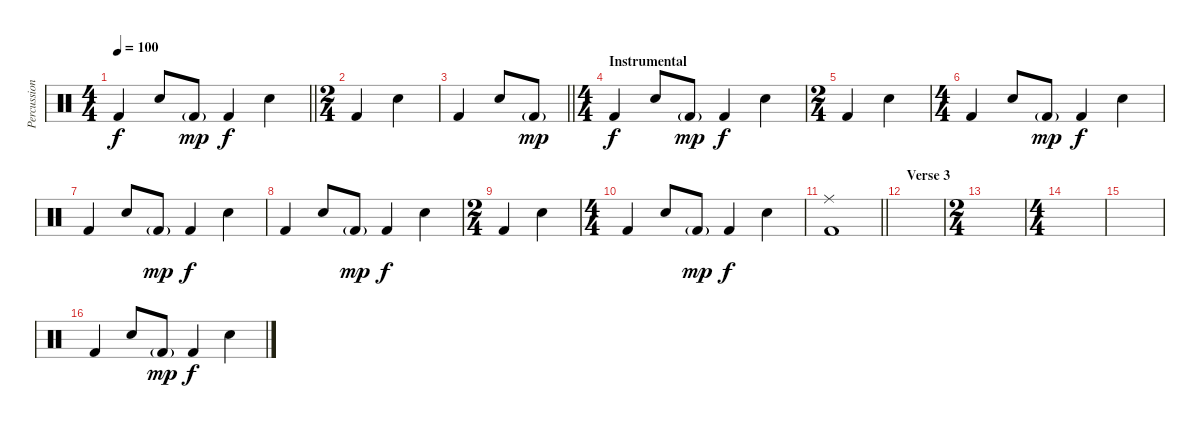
\track ("Percussion" "Percussion") {instrument percussion}
\staff {score}
\articulation defaults
\ts (4 4)
\tempo 100
\clef neutral
\barLineRight lightlight
\ks c "Kick (hit) 2".4{dy f} "Snare (hit) 2".8 "Kick (hit) 2"{g}.8{dy mp} "Kick (hit) 2".4{dy f} "Snare (hit) 2".4
|
\ts (2 4)
"Kick (hit) 2".4 "Snare (hit) 2".4 |
\barLineRight lightlight "Kick (hit) 2".4 "Snare (hit) 2".8 "Kick (hit) 2"{g}.8{dy mp}
|
\ts (4 4)
\section ("" "Instrumental")
"Kick (hit) 2".4{dy f} "Snare (hit) 2".8 "Kick (hit) 2"{g}.8{dy mp} "Kick (hit) 2".4{dy f} "Snare (hit) 2".4 |
\ts (2 4)
"Kick (hit) 2".4 "Snare (hit) 2".4 |
\ts (4 4)
"Kick (hit) 2".4 "Snare (hit) 2".8 "Kick (hit) 2"{g}.8{dy mp} "Kick (hit) 2".4{dy f} "Snare (hit) 2".4 |
"Kick (hit) 2".4 "Snare (hit) 2".8 "Kick (hit) 2"{g}.8{dy mp} "Kick (hit) 2".4{dy f} "Snare (hit) 2".4 |
"Kick (hit) 2".4 "Snare (hit) 2".8 "Kick (hit) 2"{g}.8{dy mp} "Kick (hit) 2".4{dy f} "Snare (hit) 2".4 |
\ts (2 4)
"Kick (hit) 2".4 "Snare (hit) 2".4 |
\ts (4 4)
"Kick (hit) 2".4 "Snare (hit) 2".8 "Kick (hit) 2"{g}.8{dy mp} "Kick (hit) 2".4{dy f} "Snare (hit) 2".4 |
\barLineRight lightlight
("Ride (middle)" "Kick (hit) 2").1 |
\section ("" "Verse 3")
|
\ts (2 4)
|
\ts (4 4)
|
|
"Kick (hit) 2".4 "Snare (hit) 2".8 "Kick (hit) 2"{g}.8{dy mp} "Kick (hit) 2".4{dy f} "Snare (hit) 2".4
